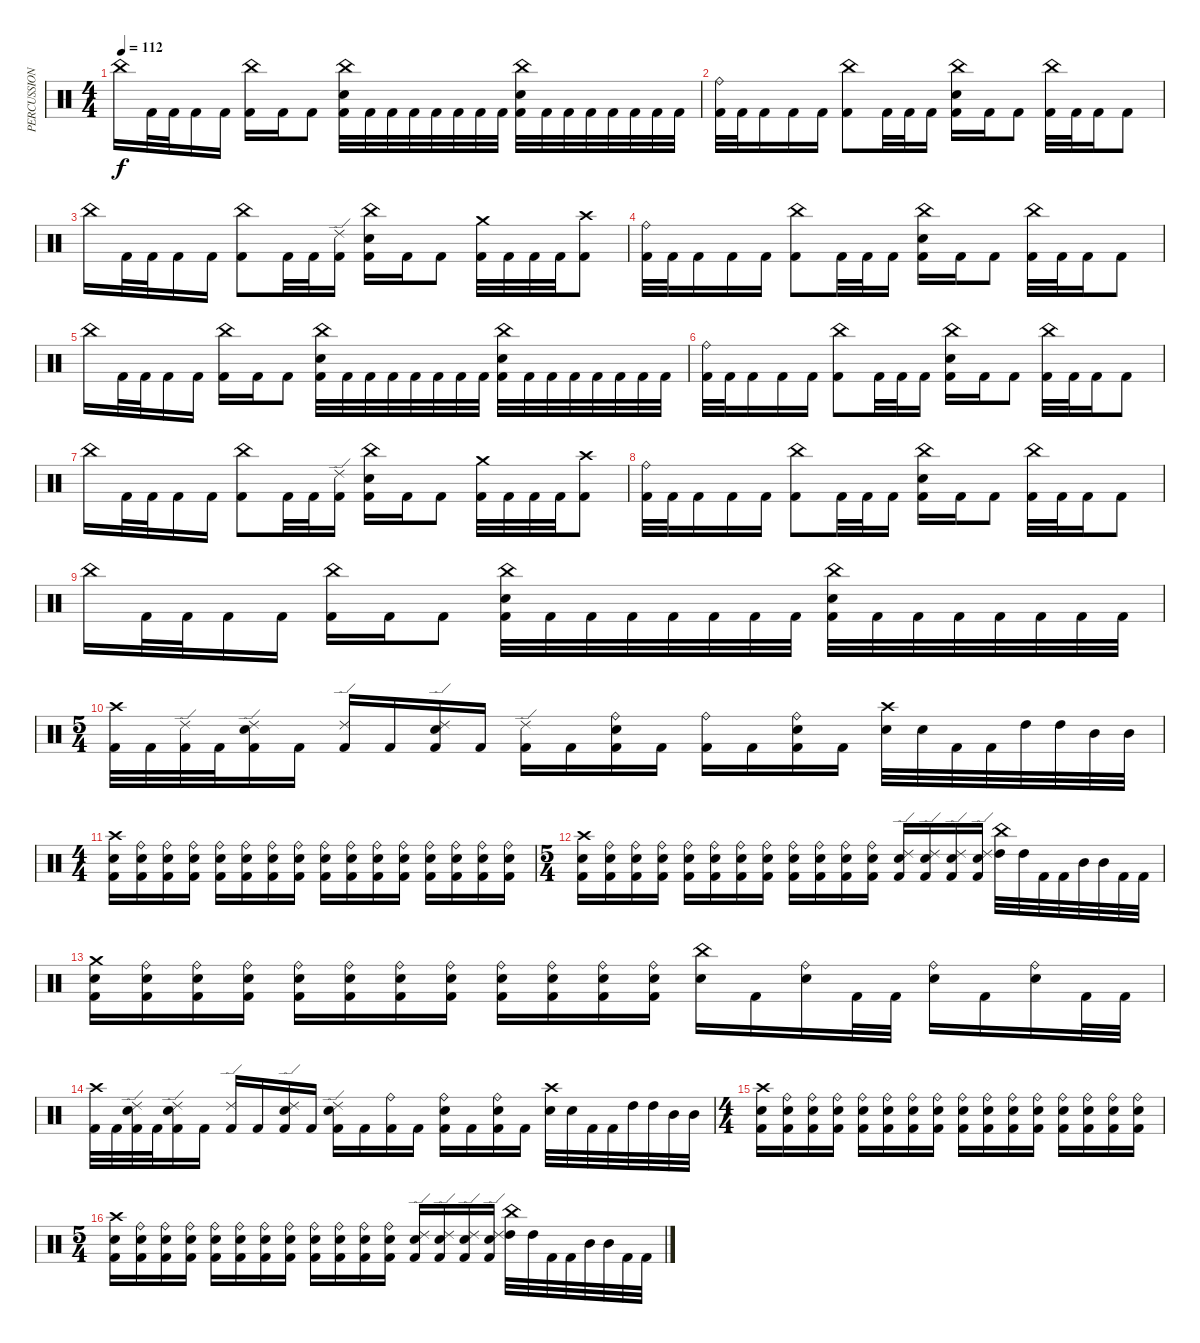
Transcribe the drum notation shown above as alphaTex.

\track ("PERCUSSION" "PERCUSSION") {instrument percussion}
\staff {score}
\articulation defaults
\ts (4 4)
\tempo 112
\clef neutral
\ks c "China (hit)".16{dy f} "Kick (hit) 2".32 "Kick (hit) 2".32 "Kick (hit) 2".16 "Kick (hit) 2".16
("China (hit)" "Kick (hit) 2").16 "Kick (hit) 2".16 "Kick (hit) 2".8 ("China (hit)" "Electric Snare (hit)" "Kick (hit) 2").32 "Kick (hit) 2".32 "Kick (hit) 2".32 "Kick (hit) 2".32 "Kick (hit) 2".32 "Kick (hit) 2".32 "Kick (hit) 2".32 "Kick (hit) 2".32 ("China (hit)" "Electric Snare (hit)" "Kick (hit) 2").32 "Kick (hit) 2".32 "Kick (hit) 2".32 "Kick (hit) 2".32 "Kick (hit) 2".32 "Kick (hit) 2".32 "Kick (hit) 2".32 "Kick (hit) 2".32 |
("Ride (bell)" "Kick (hit) 2").32 "Kick (hit) 2".32 "Kick (hit) 2".16 "Kick (hit) 2".16 "Kick (hit) 2".16 ("China (hit)" "Kick (hit) 2").8 "Kick (hit) 2".32 "Kick (hit) 2".32 "Kick (hit) 2".16 ("China (hit)" "Electric Snare (hit)" "Kick (hit) 2").16 "Kick (hit) 2".16 "Kick (hit) 2".8 ("China (hit)" "Kick (hit) 2").32 "Kick (hit) 2".32 "Kick (hit) 2".16 "Kick (hit) 2".8 |
"China (hit)".16 "Kick (hit) 2".32 "Kick (hit) 2".32 "Kick (hit) 2".16 "Kick (hit) 2".16 ("China (hit)" "Kick (hit) 2").8 "Kick (hit) 2".32 "Kick (hit) 2".32 ("Ride (edge) 2" "Kick (hit) 2").16 ("China (hit)" "Electric Snare (hit)" "Kick (hit) 2").16 "Kick (hit) 2".16 "Kick (hit) 2".8 ("Crash medium (hit)" "Kick (hit) 2").32 "Kick (hit) 2".32 "Kick (hit) 2".32 "Kick (hit) 2".32 ("Crash high (hit)" "Kick (hit) 2").8 |
("Ride (bell)" "Kick (hit) 2").32 "Kick (hit) 2".32 "Kick (hit) 2".16 "Kick (hit) 2".16 "Kick (hit) 2".16 ("China (hit)" "Kick (hit) 2").8 "Kick (hit) 2".32 "Kick (hit) 2".32 "Kick (hit) 2".16 ("China (hit)" "Electric Snare (hit)" "Kick (hit) 2").16 "Kick (hit) 2".16 "Kick (hit) 2".8 ("China (hit)" "Kick (hit) 2").32 "Kick (hit) 2".32 "Kick (hit) 2".16 "Kick (hit) 2".8 |
"China (hit)".16 "Kick (hit) 2".32 "Kick (hit) 2".32 "Kick (hit) 2".16 "Kick (hit) 2".16 ("China (hit)" "Kick (hit) 2").16 "Kick (hit) 2".16 "Kick (hit) 2".8 ("China (hit)" "Electric Snare (hit)" "Kick (hit) 2").32 "Kick (hit) 2".32 "Kick (hit) 2".32 "Kick (hit) 2".32 "Kick (hit) 2".32 "Kick (hit) 2".32 "Kick (hit) 2".32 "Kick (hit) 2".32 ("China (hit)" "Electric Snare (hit)" "Kick (hit) 2").32 "Kick (hit) 2".32 "Kick (hit) 2".32 "Kick (hit) 2".32 "Kick (hit) 2".32 "Kick (hit) 2".32 "Kick (hit) 2".32 "Kick (hit) 2".32 |
("Ride (bell)" "Kick (hit) 2").32 "Kick (hit) 2".32 "Kick (hit) 2".16 "Kick (hit) 2".16 "Kick (hit) 2".16 ("China (hit)" "Kick (hit) 2").8 "Kick (hit) 2".32 "Kick (hit) 2".32 "Kick (hit) 2".16 ("China (hit)" "Electric Snare (hit)" "Kick (hit) 2").16 "Kick (hit) 2".16 "Kick (hit) 2".8 ("China (hit)" "Kick (hit) 2").32 "Kick (hit) 2".32 "Kick (hit) 2".16 "Kick (hit) 2".8 |
"China (hit)".16 "Kick (hit) 2".32 "Kick (hit) 2".32 "Kick (hit) 2".16 "Kick (hit) 2".16 ("China (hit)" "Kick (hit) 2").8 "Kick (hit) 2".32 "Kick (hit) 2".32 ("Ride (edge) 2" "Kick (hit) 2").16 ("China (hit)" "Electric Snare (hit)" "Kick (hit) 2").16 "Kick (hit) 2".16 "Kick (hit) 2".8 ("Crash medium (hit)" "Kick (hit) 2").32 "Kick (hit) 2".32 "Kick (hit) 2".32 "Kick (hit) 2".32 ("Crash high (hit)" "Kick (hit) 2").8 |
("Ride (bell)" "Kick (hit) 2").32 "Kick (hit) 2".32 "Kick (hit) 2".16 "Kick (hit) 2".16 "Kick (hit) 2".16 ("China (hit)" "Kick (hit) 2").8 "Kick (hit) 2".32 "Kick (hit) 2".32 "Kick (hit) 2".16 ("China (hit)" "Electric Snare (hit)" "Kick (hit) 2").16 "Kick (hit) 2".16 "Kick (hit) 2".8 ("China (hit)" "Kick (hit) 2").32 "Kick (hit) 2".32 "Kick (hit) 2".16 "Kick (hit) 2".8 |
"China (hit)".16 "Kick (hit) 2".32 "Kick (hit) 2".32 "Kick (hit) 2".16 "Kick (hit) 2".16 ("China (hit)" "Kick (hit) 2").16 "Kick (hit) 2".16 "Kick (hit) 2".8 ("China (hit)" "Electric Snare (hit)" "Kick (hit) 2").32 "Kick (hit) 2".32 "Kick (hit) 2".32 "Kick (hit) 2".32 "Kick (hit) 2".32 "Kick (hit) 2".32 "Kick (hit) 2".32 "Kick (hit) 2".32 ("China (hit)" "Electric Snare (hit)" "Kick (hit) 2").32 "Kick (hit) 2".32 "Kick (hit) 2".32 "Kick (hit) 2".32 "Kick (hit) 2".32 "Kick (hit) 2".32 "Kick (hit) 2".32 "Kick (hit) 2".32 |
\ts (5 4)
("Crash high (hit)" "Kick (hit) 2").32 "Kick (hit) 2".32 ("Ride (edge) 2" "Kick (hit) 2").32 "Kick (hit) 2".32 ("Ride (edge) 2" "Electric Snare (hit)" "Kick (hit) 2").16 "Kick (hit) 2".16 ("Ride (edge) 2" "Kick (hit) 2").16 "Kick (hit) 2".16 ("Ride (edge) 2" "Electric Snare (hit)" "Kick (hit) 2").16 "Kick (hit) 2".16 ("Ride (edge) 2" "Kick (hit) 2").16 "Kick (hit) 2".16 ("Ride (bell)" "Electric Snare (hit)" "Kick (hit) 2").16 "Kick (hit) 2".16 ("Ride (bell)" "Kick (hit) 2").16 "Kick (hit) 2".16 ("Ride (bell)" "Electric Snare (hit)" "Kick (hit) 2").16 "Kick (hit) 2".16 ("Crash high (hit)" "Electric Snare (hit)").32 "Electric Snare (hit)".32 "Kick (hit) 2".32 "Kick (hit) 2".32 "High Tom (hit)".32 "High Tom (hit)".32 "Mid Tom (hit)".32 "Mid Tom (hit)".32 |
\ts (4 4)
("Crash high (hit)" "Electric Snare (hit)" "Kick (hit) 2").16 ("Ride (bell)" "Electric Snare (hit)" "Kick (hit) 2").16 ("Ride (bell)" "Electric Snare (hit)" "Kick (hit) 2").16 ("Ride (bell)" "Electric Snare (hit)" "Kick (hit) 2").16 ("Ride (bell)" "Electric Snare (hit)" "Kick (hit) 2").16 ("Ride (bell)" "Electric Snare (hit)" "Kick (hit) 2").16 ("Ride (bell)" "Electric Snare (hit)" "Kick (hit) 2").16 ("Ride (bell)" "Electric Snare (hit)" "Kick (hit) 2").16 ("Ride (bell)" "Electric Snare (hit)" "Kick (hit) 2").16 ("Ride (bell)" "Electric Snare (hit)" "Kick (hit) 2").16 ("Ride (bell)" "Electric Snare (hit)" "Kick (hit) 2").16 ("Ride (bell)" "Electric Snare (hit)" "Kick (hit) 2").16 ("Ride (bell)" "Electric Snare (hit)" "Kick (hit) 2").16 ("Ride (bell)" "Electric Snare (hit)" "Kick (hit) 2").16 ("Ride (bell)" "Electric Snare (hit)" "Kick (hit) 2").16 ("Ride (bell)" "Electric Snare (hit)" "Kick (hit) 2").16 |
\ts (5 4)
("Crash high (hit)" "Electric Snare (hit)" "Kick (hit) 2").16 ("Ride (bell)" "Electric Snare (hit)" "Kick (hit) 2").16 ("Ride (bell)" "Electric Snare (hit)" "Kick (hit) 2").16 ("Ride (bell)" "Electric Snare (hit)" "Kick (hit) 2").16 ("Ride (bell)" "Electric Snare (hit)" "Kick (hit) 2").16 ("Ride (bell)" "Electric Snare (hit)" "Kick (hit) 2").16 ("Ride (bell)" "Electric Snare (hit)" "Kick (hit) 2").16 ("Ride (bell)" "Electric Snare (hit)" "Kick (hit) 2").16 ("Ride (bell)" "Electric Snare (hit)" "Kick (hit) 2").16 ("Ride (bell)" "Electric Snare (hit)" "Kick (hit) 2").16 ("Ride (bell)" "Electric Snare (hit)" "Kick (hit) 2").16 ("Ride (bell)" "Electric Snare (hit)" "Kick (hit) 2").16 ("Ride (edge) 2" "Electric Snare (hit)" "Kick (hit) 2").16 ("Ride (edge) 2" "Electric Snare (hit)" "Kick (hit) 2").16 ("Ride (edge) 2" "Electric Snare (hit)" "Kick (hit) 2").16 ("Ride (edge) 2" "Electric Snare (hit)" "Kick (hit) 2").16 ("China (hit)" "High Tom (hit)").32 "High Tom (hit)".32 "Kick (hit) 2".32 "Kick (hit) 2".32 "Mid Tom (hit)".32 "Mid Tom (hit)".32 "Kick (hit) 2".32 "Kick (hit) 2".32 |
("Crash medium (hit)" "Electric Snare (hit)" "Kick (hit) 2").16 ("Ride (bell)" "Electric Snare (hit)" "Kick (hit) 2").16 ("Ride (bell)" "Electric Snare (hit)" "Kick (hit) 2").16 ("Ride (bell)" "Electric Snare (hit)" "Kick (hit) 2").16 ("Ride (bell)" "Electric Snare (hit)" "Kick (hit) 2").16 ("Ride (bell)" "Electric Snare (hit)" "Kick (hit) 2").16 ("Ride (bell)" "Electric Snare (hit)" "Kick (hit) 2").16 ("Ride (bell)" "Electric Snare (hit)" "Kick (hit) 2").16 ("Ride (bell)" "Electric Snare (hit)" "Kick (hit) 2").16 ("Ride (bell)" "Electric Snare (hit)" "Kick (hit) 2").16 ("Ride (bell)" "Electric Snare (hit)" "Kick (hit) 2").16 ("Ride (bell)" "Electric Snare (hit)" "Kick (hit) 2").16 ("China (hit)" "Electric Snare (hit)").16 "Kick (hit) 2".16 ("Ride (bell)" "Electric Snare (hit)").16 "Kick (hit) 2".32 "Kick (hit) 2".32 ("Ride (bell)" "Electric Snare (hit)").16 "Kick (hit) 2".16 ("Ride (bell)" "Electric Snare (hit)").16 "Kick (hit) 2".32 "Kick (hit) 2".32 |
("Crash high (hit)" "Kick (hit) 2").32 "Kick (hit) 2".32 ("Ride (edge) 2" "Electric Snare (hit)" "Kick (hit) 2").32 "Kick (hit) 2".32 ("Ride (edge) 2" "Electric Snare (hit)" "Kick (hit) 2").16 "Kick (hit) 2".16 ("Ride (edge) 2" "Kick (hit) 2").16 "Kick (hit) 2".16 ("Ride (edge) 2" "Electric Snare (hit)" "Kick (hit) 2").16 "Kick (hit) 2".16 ("Ride (edge) 2" "Electric Snare (hit)" "Kick (hit) 2").16 "Kick (hit) 2".16 ("Ride (bell)" "Kick (hit) 2").16 "Kick (hit) 2".16 ("Ride (bell)" "Electric Snare (hit)" "Kick (hit) 2").16 "Kick (hit) 2".16 ("Ride (bell)" "Electric Snare (hit)" "Kick (hit) 2").16 "Kick (hit) 2".16 ("Crash high (hit)" "Electric Snare (hit)").32 "Electric Snare (hit)".32 "Kick (hit) 2".32 "Kick (hit) 2".32 "High Tom (hit)".32 "High Tom (hit)".32 "Mid Tom (hit)".32 "Mid Tom (hit)".32 |
\ts (4 4)
("Crash high (hit)" "Electric Snare (hit)" "Kick (hit) 2").16 ("Ride (bell)" "Electric Snare (hit)" "Kick (hit) 2").16 ("Ride (bell)" "Electric Snare (hit)" "Kick (hit) 2").16 ("Ride (bell)" "Electric Snare (hit)" "Kick (hit) 2").16 ("Ride (bell)" "Electric Snare (hit)" "Kick (hit) 2").16 ("Ride (bell)" "Electric Snare (hit)" "Kick (hit) 2").16 ("Ride (bell)" "Electric Snare (hit)" "Kick (hit) 2").16 ("Ride (bell)" "Electric Snare (hit)" "Kick (hit) 2").16 ("Ride (bell)" "Electric Snare (hit)" "Kick (hit) 2").16 ("Ride (bell)" "Electric Snare (hit)" "Kick (hit) 2").16 ("Ride (bell)" "Electric Snare (hit)" "Kick (hit) 2").16 ("Ride (bell)" "Electric Snare (hit)" "Kick (hit) 2").16 ("Ride (bell)" "Electric Snare (hit)" "Kick (hit) 2").16 ("Ride (bell)" "Electric Snare (hit)" "Kick (hit) 2").16 ("Ride (bell)" "Electric Snare (hit)" "Kick (hit) 2").16 ("Ride (bell)" "Electric Snare (hit)" "Kick (hit) 2").16 |
\ts (5 4)
("Crash high (hit)" "Electric Snare (hit)" "Kick (hit) 2").16 ("Ride (bell)" "Electric Snare (hit)" "Kick (hit) 2").16 ("Ride (bell)" "Electric Snare (hit)" "Kick (hit) 2").16 ("Ride (bell)" "Electric Snare (hit)" "Kick (hit) 2").16 ("Ride (bell)" "Electric Snare (hit)" "Kick (hit) 2").16 ("Ride (bell)" "Electric Snare (hit)" "Kick (hit) 2").16 ("Ride (bell)" "Electric Snare (hit)" "Kick (hit) 2").16 ("Ride (bell)" "Electric Snare (hit)" "Kick (hit) 2").16 ("Ride (bell)" "Electric Snare (hit)" "Kick (hit) 2").16 ("Ride (bell)" "Electric Snare (hit)" "Kick (hit) 2").16 ("Ride (bell)" "Electric Snare (hit)" "Kick (hit) 2").16 ("Ride (bell)" "Electric Snare (hit)" "Kick (hit) 2").16 ("Ride (edge) 2" "Electric Snare (hit)" "Kick (hit) 2").16 ("Ride (edge) 2" "Electric Snare (hit)" "Kick (hit) 2").16 ("Ride (edge) 2" "Electric Snare (hit)" "Kick (hit) 2").16 ("Ride (edge) 2" "Electric Snare (hit)" "Kick (hit) 2").16 ("China (hit)" "High Tom (hit)").32 "High Tom (hit)".32 "Kick (hit) 2".32 "Kick (hit) 2".32 "Mid Tom (hit)".32 "Mid Tom (hit)".32 "Kick (hit) 2".32 "Kick (hit) 2".32
